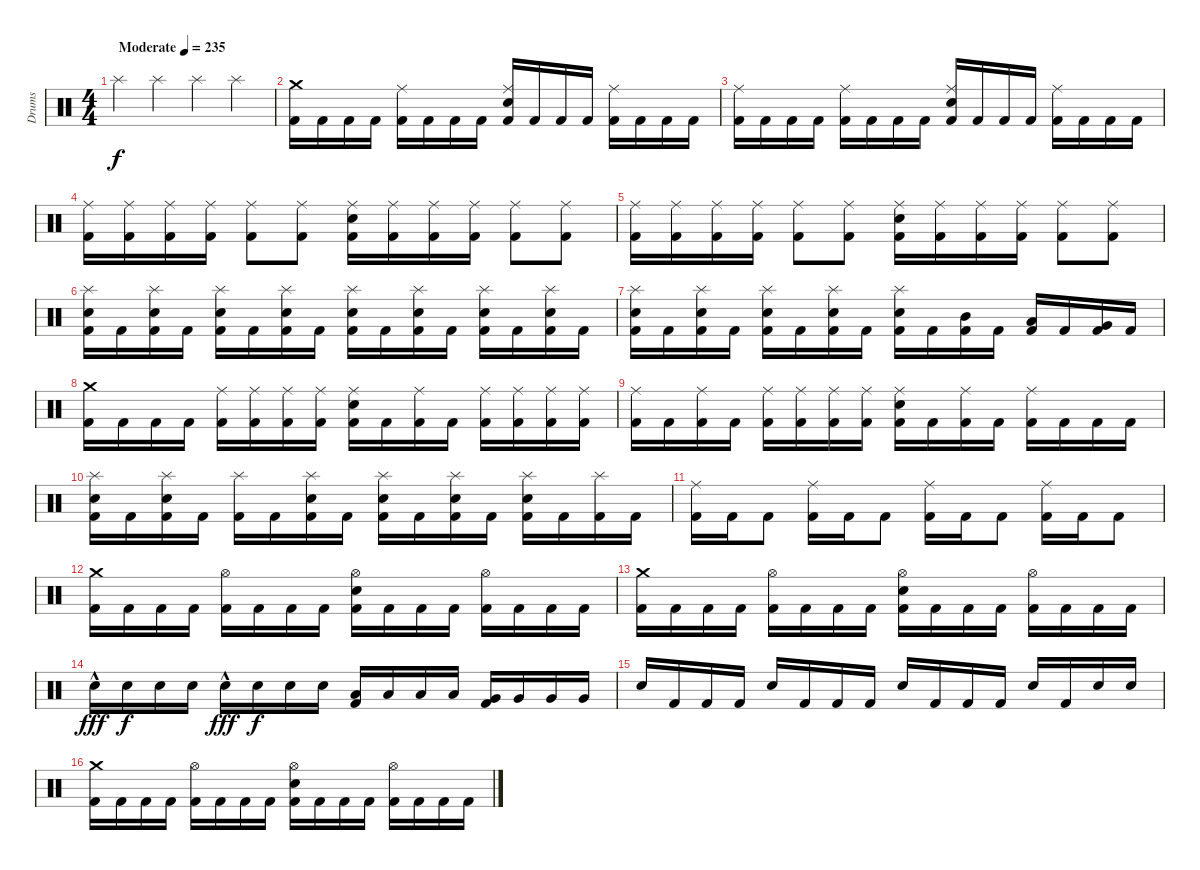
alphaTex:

\track ("Drums" "Drums") {instrument percussion}
\staff {score}
\articulation defaults
\ts (4 4)
\tempo (235 "Moderate")
\clef neutral
\ks c "Splash (hit)".4{dy f} "Splash (hit)".4 "Splash (hit)".4 "Splash (hit)".4
|
("Crash medium (hit)" "Kick (hit) 2").16 "Kick (hit) 2".16 "Kick (hit) 2".16 "Kick (hit) 2".16 ("Ride (middle)" "Kick (hit) 2").16 "Kick (hit) 2".16 "Kick (hit) 2".16 "Kick (hit) 2".16 ("Ride (middle)" "Electric Snare (hit)" "Kick (hit) 2").16 "Kick (hit) 2".16 "Kick (hit) 2".16 "Kick (hit) 2".16 ("Ride (middle)" "Kick (hit) 2").16 "Kick (hit) 2".16 "Kick (hit) 2".16 "Kick (hit) 2".16 |
("Ride (middle)" "Kick (hit) 2").16 "Kick (hit) 2".16 "Kick (hit) 2".16 "Kick (hit) 2".16 ("Ride (middle)" "Kick (hit) 2").16 "Kick (hit) 2".16 "Kick (hit) 2".16 "Kick (hit) 2".16 ("Ride (middle)" "Electric Snare (hit)" "Kick (hit) 2").16 "Kick (hit) 2".16 "Kick (hit) 2".16 "Kick (hit) 2".16 ("Ride (middle)" "Kick (hit) 2").16 "Kick (hit) 2".16 "Kick (hit) 2".16 "Kick (hit) 2".16 |
("Ride (middle)" "Kick (hit) 2").16 ("Ride (middle)" "Kick (hit) 2").16 ("Ride (middle)" "Kick (hit) 2").16 ("Ride (middle)" "Kick (hit) 2").16 ("Ride (middle)" "Kick (hit) 2").8 ("Ride (middle)" "Kick (hit) 2").8 ("Ride (middle)" "Electric Snare (hit)" "Kick (hit) 2").16 ("Ride (middle)" "Kick (hit) 2").16 ("Ride (middle)" "Kick (hit) 2").16 ("Ride (middle)" "Kick (hit) 2").16 ("Ride (middle)" "Kick (hit) 2").8 ("Ride (middle)" "Kick (hit) 2").8 |
("Ride (middle)" "Kick (hit) 2").16 ("Ride (middle)" "Kick (hit) 2").16 ("Ride (middle)" "Kick (hit) 2").16 ("Ride (middle)" "Kick (hit) 2").16 ("Ride (middle)" "Kick (hit) 2").8 ("Ride (middle)" "Kick (hit) 2").8 ("Ride (middle)" "Electric Snare (hit)" "Kick (hit) 2").16 ("Ride (middle)" "Kick (hit) 2").16 ("Ride (middle)" "Kick (hit) 2").16 ("Ride (middle)" "Kick (hit) 2").16 ("Ride (middle)" "Kick (hit) 2").8 ("Ride (middle)" "Kick (hit) 2").8 |
("Splash (hit)" "Electric Snare (hit)" "Kick (hit) 2").16 "Kick (hit) 2".16 ("Splash (hit)" "Electric Snare (hit)" "Kick (hit) 2").16 "Kick (hit) 2".16 ("Splash (hit)" "Electric Snare (hit)" "Kick (hit) 2").16 "Kick (hit) 2".16 ("Splash (hit)" "Electric Snare (hit)" "Kick (hit) 2").16 "Kick (hit) 2".16 ("Splash (hit)" "Electric Snare (hit)" "Kick (hit) 2").16 "Kick (hit) 2".16 ("Splash (hit)" "Electric Snare (hit)" "Kick (hit) 2").16 "Kick (hit) 2".16 ("Splash (hit)" "Electric Snare (hit)" "Kick (hit) 2").16 "Kick (hit) 2".16 ("Splash (hit)" "Electric Snare (hit)" "Kick (hit) 2").16 "Kick (hit) 2".16 |
("Splash (hit)" "Electric Snare (hit)" "Kick (hit) 2").16 "Kick (hit) 2".16 ("Splash (hit)" "Electric Snare (hit)" "Kick (hit) 2").16 "Kick (hit) 2".16 ("Splash (hit)" "Electric Snare (hit)" "Kick (hit) 2").16 "Kick (hit) 2".16 ("Splash (hit)" "Electric Snare (hit)" "Kick (hit) 2").16 "Kick (hit) 2".16 ("Splash (hit)" "Electric Snare (hit)" "Kick (hit) 2").16 "Kick (hit) 2".16 ("Mid Tom (hit)" "Kick (hit) 2").16 "Kick (hit) 2".16 ("Low Tom (hit)" "Kick (hit) 2").16 "Kick (hit) 2".16 ("Very Low Tom (hit)" "Kick (hit) 2").16 "Kick (hit) 2".16 |
("Crash medium (hit)" "Kick (hit) 2").16 "Kick (hit) 2".16 "Kick (hit) 2".16 "Kick (hit) 2".16 ("Ride (middle)" "Kick (hit) 2").16 ("Ride (middle)" "Kick (hit) 2").16 ("Ride (middle)" "Kick (hit) 2").16 ("Ride (middle)" "Kick (hit) 2").16 ("Ride (middle)" "Electric Snare (hit)" "Kick (hit) 2").16 "Kick (hit) 2".16 ("Ride (middle)" "Kick (hit) 2").16 "Kick (hit) 2".16 ("Ride (middle)" "Kick (hit) 2").16 ("Ride (middle)" "Kick (hit) 2").16 ("Ride (middle)" "Kick (hit) 2").16 ("Ride (middle)" "Kick (hit) 2").16 |
("Ride (middle)" "Kick (hit) 2").16 "Kick (hit) 2".16 ("Ride (middle)" "Kick (hit) 2").16 "Kick (hit) 2".16 ("Ride (middle)" "Kick (hit) 2").16 ("Ride (middle)" "Kick (hit) 2").16 ("Ride (middle)" "Kick (hit) 2").16 ("Ride (middle)" "Kick (hit) 2").16 ("Ride (middle)" "Electric Snare (hit)" "Kick (hit) 2").16 "Kick (hit) 2".16 ("Ride (middle)" "Kick (hit) 2").16 "Kick (hit) 2".16 ("Ride (middle)" "Kick (hit) 2").16 "Kick (hit) 2".16 "Kick (hit) 2".16 "Kick (hit) 2".16 |
("Splash (hit)" "Electric Snare (hit)" "Kick (hit) 2").16 "Kick (hit) 2".16 ("Splash (hit)" "Electric Snare (hit)" "Kick (hit) 2").16 "Kick (hit) 2".16 ("Splash (hit)" "Kick (hit) 2").16 "Kick (hit) 2".16 ("Splash (hit)" "Electric Snare (hit)" "Kick (hit) 2").16 "Kick (hit) 2".16 ("Splash (hit)" "Electric Snare (hit)" "Kick (hit) 2").16 "Kick (hit) 2".16 ("Splash (hit)" "Electric Snare (hit)" "Kick (hit) 2").16 "Kick (hit) 2".16 ("Splash (hit)" "Electric Snare (hit)" "Kick (hit) 2").16 "Kick (hit) 2".16 ("Splash (hit)" "Kick (hit) 2").16 "Kick (hit) 2".16 |
("Ride (middle)" "Kick (hit) 2").16 "Kick (hit) 2".16 "Kick (hit) 2".8 ("Ride (middle)" "Kick (hit) 2").16 "Kick (hit) 2".16 "Kick (hit) 2".8 ("Ride (middle)" "Kick (hit) 2").16 "Kick (hit) 2".16 "Kick (hit) 2".8 ("Ride (middle)" "Kick (hit) 2").16 "Kick (hit) 2".16 "Kick (hit) 2".8 |
("Crash medium (hit)" "Kick (hit) 2").16 "Kick (hit) 2".16 "Kick (hit) 2".16 "Kick (hit) 2".16 ("Hi-Hat (open)" "Kick (hit) 2").16 "Kick (hit) 2".16 "Kick (hit) 2".16 "Kick (hit) 2".16 ("Hi-Hat (open)" "Electric Snare (hit)" "Kick (hit) 2").16 "Kick (hit) 2".16 "Kick (hit) 2".16 "Kick (hit) 2".16 ("Hi-Hat (open)" "Kick (hit) 2").16 "Kick (hit) 2".16 "Kick (hit) 2".16 "Kick (hit) 2".16 |
("Crash medium (hit)" "Kick (hit) 2").16 "Kick (hit) 2".16 "Kick (hit) 2".16 "Kick (hit) 2".16 ("Hi-Hat (open)" "Kick (hit) 2").16 "Kick (hit) 2".16 "Kick (hit) 2".16 "Kick (hit) 2".16 ("Hi-Hat (open)" "Electric Snare (hit)" "Kick (hit) 2").16 "Kick (hit) 2".16 "Kick (hit) 2".16 "Kick (hit) 2".16 ("Hi-Hat (open)" "Kick (hit) 2").16 "Kick (hit) 2".16 "Kick (hit) 2".16 "Kick (hit) 2".16 |
"Electric Snare (hit)"{hac}.16{dy fff} "Electric Snare (hit)".16{dy f} "Electric Snare (hit)".16 "Electric Snare (hit)".16 "Electric Snare (hit)"{hac}.16{dy fff} "Electric Snare (hit)".16{dy f} "Electric Snare (hit)".16 "Electric Snare (hit)".16 ("Low Tom (hit)" "Kick (hit) 2").16 "Low Tom (hit)".16 "Low Tom (hit)".16 "Low Tom (hit)".16 ("Very Low Tom (hit)" "Kick (hit) 2").16 "Very Low Tom (hit)".16 "Very Low Tom (hit)".16 "Very Low Tom (hit)".16 |
"Electric Snare (hit)".16 "Kick (hit) 2".16 "Kick (hit) 2".16 "Kick (hit) 2".16 "Electric Snare (hit)".16 "Kick (hit) 2".16 "Kick (hit) 2".16 "Kick (hit) 2".16 "Electric Snare (hit)".16 "Kick (hit) 2".16 "Kick (hit) 2".16 "Kick (hit) 2".16 "Electric Snare (hit)".16 "Kick (hit) 2".16 "Electric Snare (hit)".16 "Electric Snare (hit)".16 |
("Crash medium (hit)" "Kick (hit) 2").16 "Kick (hit) 2".16 "Kick (hit) 2".16 "Kick (hit) 2".16 ("Hi-Hat (open)" "Kick (hit) 2").16 "Kick (hit) 2".16 "Kick (hit) 2".16 "Kick (hit) 2".16 ("Hi-Hat (open)" "Electric Snare (hit)" "Kick (hit) 2").16 "Kick (hit) 2".16 "Kick (hit) 2".16 "Kick (hit) 2".16 ("Hi-Hat (open)" "Kick (hit) 2").16 "Kick (hit) 2".16 "Kick (hit) 2".16 "Kick (hit) 2".16
